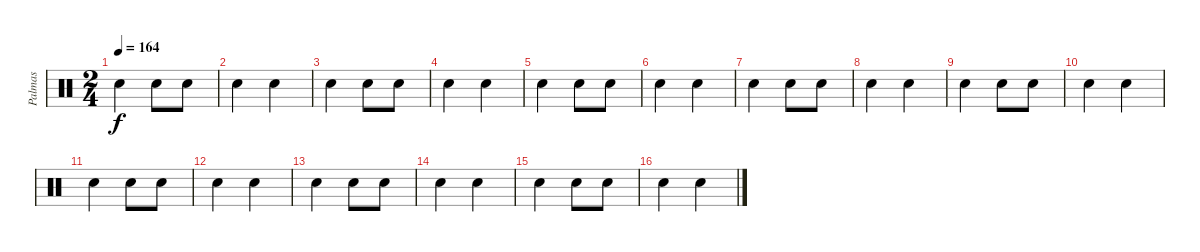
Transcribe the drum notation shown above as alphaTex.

\track ("Palmas" "Palmas") {instrument percussion}
\staff {score}
\articulation defaults
\ts (2 4)
\tempo 164
\clef neutral
\ks c "Hand Clap (hit)".4{dy f} "Hand Clap (hit)".8 "Hand Clap (hit)".8
|
"Hand Clap (hit)".4 "Hand Clap (hit)".4 |
"Hand Clap (hit)".4 "Hand Clap (hit)".8 "Hand Clap (hit)".8 |
"Hand Clap (hit)".4 "Hand Clap (hit)".4 |
"Hand Clap (hit)".4 "Hand Clap (hit)".8 "Hand Clap (hit)".8 |
"Hand Clap (hit)".4 "Hand Clap (hit)".4 |
"Hand Clap (hit)".4 "Hand Clap (hit)".8 "Hand Clap (hit)".8 |
"Hand Clap (hit)".4 "Hand Clap (hit)".4 |
"Hand Clap (hit)".4 "Hand Clap (hit)".8 "Hand Clap (hit)".8 |
"Hand Clap (hit)".4 "Hand Clap (hit)".4 |
"Hand Clap (hit)".4 "Hand Clap (hit)".8 "Hand Clap (hit)".8 |
"Hand Clap (hit)".4 "Hand Clap (hit)".4 |
"Hand Clap (hit)".4 "Hand Clap (hit)".8 "Hand Clap (hit)".8 |
"Hand Clap (hit)".4 "Hand Clap (hit)".4 |
"Hand Clap (hit)".4 "Hand Clap (hit)".8 "Hand Clap (hit)".8 |
"Hand Clap (hit)".4 "Hand Clap (hit)".4
